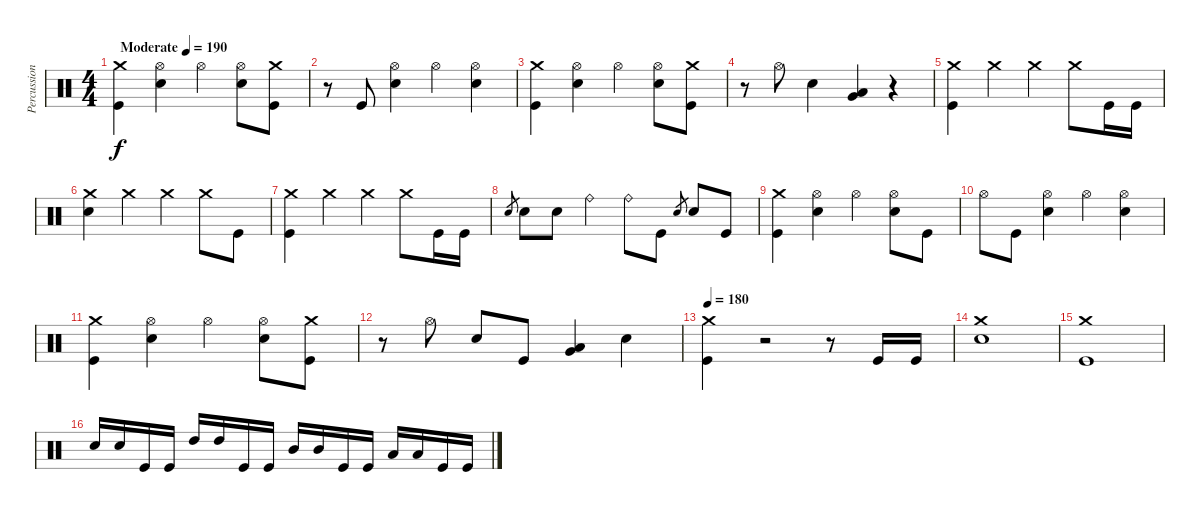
\track ("Percussion" "Percussion") {instrument percussion}
\staff {score}
\articulation defaults
\ts (4 4)
\tempo (190 "Moderate")
\clef neutral
\ks c
("Crash medium (hit)" "Kick (hit)").4{dy f} ("Hi-Hat (open)" "Snare (hit) 2").4 "Hi-Hat (open)".4 ("Hi-Hat (open)" "Snare (hit) 2").8 ("Crash medium (hit)" "Kick (hit)").8 |
r.8 "Kick (hit)".8 ("Hi-Hat (open)" "Snare (hit) 2").4 "Hi-Hat (open)".4 ("Hi-Hat (open)" "Snare (hit) 2").4 |
("Crash medium (hit)" "Kick (hit)").4 ("Hi-Hat (open)" "Snare (hit) 2").4 "Hi-Hat (open)".4 ("Hi-Hat (open)" "Snare (hit) 2").8 ("Crash medium (hit)" "Kick (hit)").8 |
r.8 "Hi-Hat (open)".8 "Snare (hit) 2".4 ("Low Tom (hit)" "Very Low Tom (hit)").4 r.4 |
("Crash medium (hit)" "Kick (hit)").4 "Crash medium (hit)".4 "Crash medium (hit)".4 "Crash medium (hit)".8 "Kick (hit)".16 "Kick (hit)".16 |
("Crash medium (hit)" "Snare (hit) 2").4 "Crash medium (hit)".4 "Crash medium (hit)".4 "Crash medium (hit)".8 "Kick (hit)".8 |
("Crash medium (hit)" "Kick (hit)").4 "Crash medium (hit)".4 "Crash medium (hit)".4 "Crash medium (hit)".8 "Kick (hit)".16 "Kick (hit)".16 |
"Snare (hit) 2".8{gr} "Snare (hit) 2".8 "Snare (hit) 2".8 "Ride (bell)".4 "Ride (bell)".8 "Kick (hit)".8 "Snare (hit) 2".8{gr} "Snare (hit) 2".8 "Kick (hit)".8 |
("Crash medium (hit)" "Kick (hit)").4 ("Hi-Hat (open)" "Snare (hit) 2").4 "Hi-Hat (open)".4 ("Hi-Hat (open)" "Snare (hit) 2").8 "Kick (hit)".8 |
"Hi-Hat (open)".8 "Kick (hit)".8 ("Hi-Hat (open)" "Snare (hit) 2").4 "Hi-Hat (open)".4 ("Hi-Hat (open)" "Snare (hit) 2").4 |
("Crash medium (hit)" "Kick (hit)").4 ("Hi-Hat (open)" "Snare (hit) 2").4 "Hi-Hat (open)".4 ("Hi-Hat (open)" "Snare (hit) 2").8 ("Crash medium (hit)" "Kick (hit)").8 |
r.8 "Hi-Hat (open)".8 "Snare (hit) 2".8 "Kick (hit)".8 ("Low Tom (hit)" "Very Low Tom (hit)").4 "Snare (hit) 2".4 |
\tempo 180
("Crash medium (hit)" "Kick (hit)").4 r.2 r.8 "Kick (hit)".16 "Kick (hit)".16 |
("Crash medium (hit)" "Snare (hit) 2").1 |
("Crash medium (hit)" "Kick (hit)").1 |
"Snare (hit) 2".16 "Snare (hit) 2".16 "Kick (hit)".16 "Kick (hit)".16 "High Tom (hit)".16 "High Tom (hit)".16 "Kick (hit)".16 "Kick (hit)".16 "Mid Tom (hit)".16 "Mid Tom (hit)".16 "Kick (hit)".16 "Kick (hit)".16 "Low Tom (hit)".16 "Low Tom (hit)".16 "Kick (hit)".16 "Kick (hit)".16
